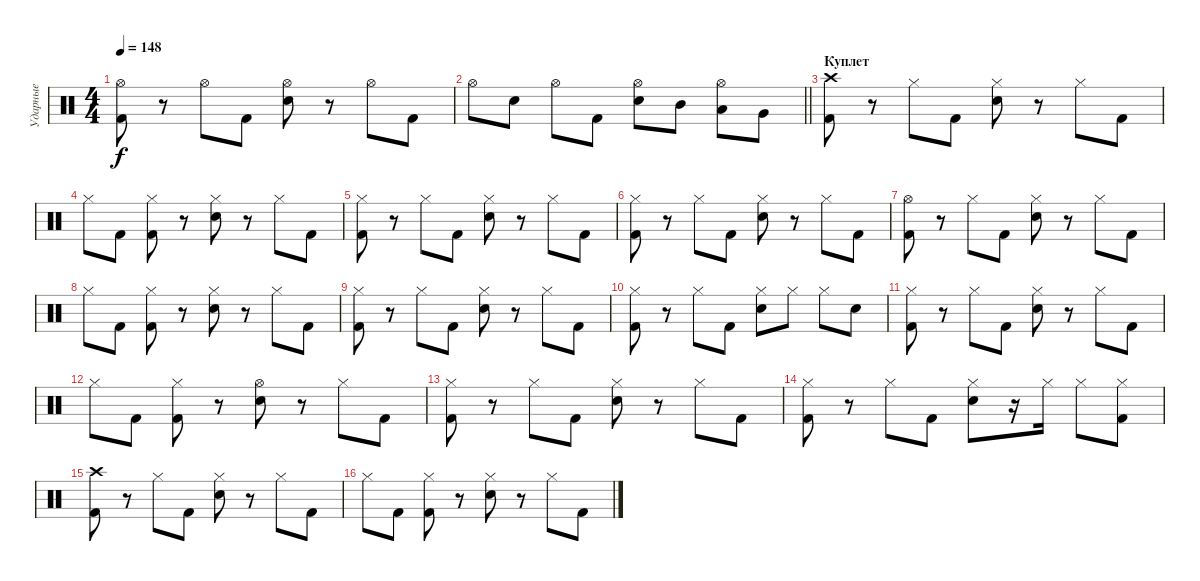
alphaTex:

\track ("Ударные" "Ударные") {instrument percussion}
\staff {score}
\articulation defaults
\ts (4 4)
\tempo 148
\clef neutral
\ks c
("Hi-Hat (open)" "Kick (hit) 2").8{dy f} r.8 "Hi-Hat (open)".8 "Kick (hit) 2".8 ("Hi-Hat (open)" "Electric Snare (hit)").8 r.8 "Hi-Hat (open)".8 "Kick (hit) 2".8 |
\barLineRight lightlight "Hi-Hat (open)".8 "Electric Snare (hit)".8 "Hi-Hat (open)".8 "Kick (hit) 2".8
("Hi-Hat (open)" "Electric Snare (hit)").8 "Mid Tom (hit)".8 ("Hi-Hat (open)" "Low Tom (hit)").8 "Very Low Tom (hit)".8 |
\section ("" "Куплет")
("Crash high (hit)" "Kick (hit) 2").8 r.8 "Hi-Hat (closed)".8 "Kick (hit) 2".8 ("Hi-Hat (closed)" "Electric Snare (hit)").8 r.8 "Hi-Hat (closed)".8 "Kick (hit) 2".8 |
"Hi-Hat (closed)".8 "Kick (hit) 2".8 ("Hi-Hat (closed)" "Kick (hit) 2").8 r.8 ("Hi-Hat (closed)" "Electric Snare (hit)").8 r.8 "Hi-Hat (closed)".8 "Kick (hit) 2".8 |
("Hi-Hat (closed)" "Kick (hit) 2").8 r.8 "Hi-Hat (closed)".8 "Kick (hit) 2".8 ("Hi-Hat (closed)" "Electric Snare (hit)").8 r.8 "Hi-Hat (closed)".8 "Kick (hit) 2".8 |
("Hi-Hat (closed)" "Kick (hit) 2").8 r.8 "Hi-Hat (closed)".8 "Kick (hit) 2".8 ("Hi-Hat (closed)" "Electric Snare (hit)").8 r.8 "Hi-Hat (closed)".8 "Kick (hit) 2".8 |
("Hi-Hat (open)" "Kick (hit) 2").8 r.8 "Hi-Hat (closed)".8 "Kick (hit) 2".8 ("Hi-Hat (closed)" "Electric Snare (hit)").8 r.8 "Hi-Hat (closed)".8 "Kick (hit) 2".8 |
"Hi-Hat (closed)".8 "Kick (hit) 2".8 ("Hi-Hat (closed)" "Kick (hit) 2").8 r.8 ("Hi-Hat (closed)" "Electric Snare (hit)").8 r.8 "Hi-Hat (closed)".8 "Kick (hit) 2".8 |
("Hi-Hat (closed)" "Kick (hit) 2").8 r.8 "Hi-Hat (closed)".8 "Kick (hit) 2".8 ("Hi-Hat (closed)" "Electric Snare (hit)").8 r.8 "Hi-Hat (closed)".8 "Kick (hit) 2".8 |
("Hi-Hat (closed)" "Kick (hit) 2").8 r.8 "Hi-Hat (closed)".8 "Kick (hit) 2".8 ("Hi-Hat (closed)" "Electric Snare (hit)").8 "Hi-Hat (closed)".8 "Hi-Hat (closed)".8 "Electric Snare (hit)".8 |
("Hi-Hat (closed)" "Kick (hit) 2").8 r.8 "Hi-Hat (closed)".8 "Kick (hit) 2".8 ("Hi-Hat (closed)" "Electric Snare (hit)").8 r.8 "Hi-Hat (closed)".8 "Kick (hit) 2".8 |
"Hi-Hat (closed)".8 "Kick (hit) 2".8 ("Hi-Hat (closed)" "Kick (hit) 2").8 r.8 ("Hi-Hat (open)" "Electric Snare (hit)").8 r.8 "Hi-Hat (closed)".8 "Kick (hit) 2".8 |
("Hi-Hat (closed)" "Kick (hit) 2").8 r.8 "Hi-Hat (closed)".8 "Kick (hit) 2".8 ("Hi-Hat (closed)" "Electric Snare (hit)").8 r.8 "Hi-Hat (closed)".8 "Kick (hit) 2".8 |
("Hi-Hat (closed)" "Kick (hit) 2").8 r.8 "Hi-Hat (closed)".8 "Kick (hit) 2".8 ("Hi-Hat (closed)" "Electric Snare (hit)").8 r.16 "Hi-Hat (closed)".16 "Hi-Hat (closed)".8 ("Hi-Hat (closed)" "Kick (hit) 2").8 |
("Crash high (hit)" "Kick (hit) 2").8 r.8 "Hi-Hat (closed)".8 "Kick (hit) 2".8 ("Hi-Hat (closed)" "Electric Snare (hit)").8 r.8 "Hi-Hat (closed)".8 "Kick (hit) 2".8 |
"Hi-Hat (closed)".8 "Kick (hit) 2".8 ("Hi-Hat (closed)" "Kick (hit) 2").8 r.8 ("Hi-Hat (closed)" "Electric Snare (hit)").8 r.8 "Hi-Hat (closed)".8 "Kick (hit) 2".8
